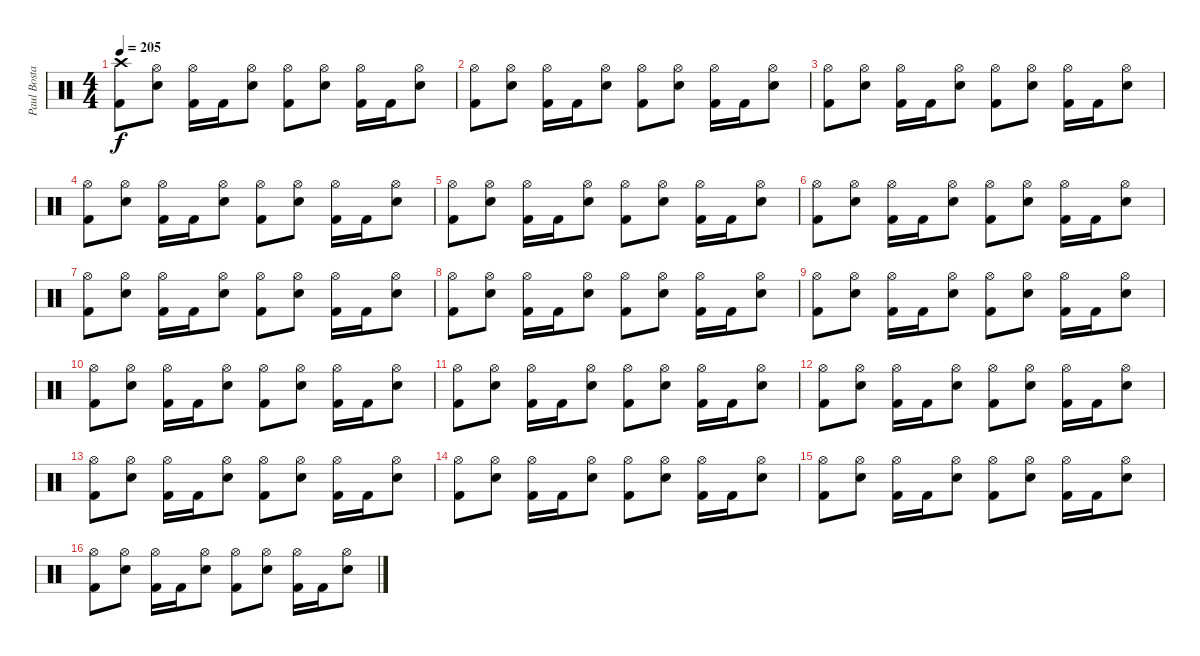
\track ("Paul Bostaph" "Paul Bosta") {instrument percussion}
\staff {score}
\articulation defaults
\ts (4 4)
\tempo 205
\clef neutral
\ks c
("Crash high (hit)" "Kick (hit) 2").8{dy f} ("Hi-Hat (open)" "Electric Snare (hit)").8 ("Hi-Hat (open)" "Kick (hit) 2").16 "Kick (hit) 2".16 ("Hi-Hat (open)" "Electric Snare (hit)").8 ("Hi-Hat (open)" "Kick (hit) 2").8 ("Hi-Hat (open)" "Electric Snare (hit)").8 ("Hi-Hat (open)" "Kick (hit) 2").16 "Kick (hit) 2".16 ("Hi-Hat (open)" "Electric Snare (hit)").8 |
("Hi-Hat (open)" "Kick (hit) 2").8 ("Hi-Hat (open)" "Electric Snare (hit)").8 ("Hi-Hat (open)" "Kick (hit) 2").16 "Kick (hit) 2".16 ("Hi-Hat (open)" "Electric Snare (hit)").8 ("Hi-Hat (open)" "Kick (hit) 2").8 ("Hi-Hat (open)" "Electric Snare (hit)").8 ("Hi-Hat (open)" "Kick (hit) 2").16 "Kick (hit) 2".16 ("Hi-Hat (open)" "Electric Snare (hit)").8 |
("Hi-Hat (open)" "Kick (hit) 2").8 ("Hi-Hat (open)" "Electric Snare (hit)").8 ("Hi-Hat (open)" "Kick (hit) 2").16 "Kick (hit) 2".16 ("Hi-Hat (open)" "Electric Snare (hit)").8 ("Hi-Hat (open)" "Kick (hit) 2").8 ("Hi-Hat (open)" "Electric Snare (hit)").8 ("Hi-Hat (open)" "Kick (hit) 2").16 "Kick (hit) 2".16 ("Hi-Hat (open)" "Electric Snare (hit)").8 |
("Hi-Hat (open)" "Kick (hit) 2").8 ("Hi-Hat (open)" "Electric Snare (hit)").8 ("Hi-Hat (open)" "Kick (hit) 2").16 "Kick (hit) 2".16 ("Hi-Hat (open)" "Electric Snare (hit)").8 ("Hi-Hat (open)" "Kick (hit) 2").8 ("Hi-Hat (open)" "Electric Snare (hit)").8 ("Hi-Hat (open)" "Kick (hit) 2").16 "Kick (hit) 2".16 ("Hi-Hat (open)" "Electric Snare (hit)").8 |
("Hi-Hat (open)" "Kick (hit) 2").8 ("Hi-Hat (open)" "Electric Snare (hit)").8 ("Hi-Hat (open)" "Kick (hit) 2").16 "Kick (hit) 2".16 ("Hi-Hat (open)" "Electric Snare (hit)").8 ("Hi-Hat (open)" "Kick (hit) 2").8 ("Hi-Hat (open)" "Electric Snare (hit)").8 ("Hi-Hat (open)" "Kick (hit) 2").16 "Kick (hit) 2".16 ("Hi-Hat (open)" "Electric Snare (hit)").8 |
("Hi-Hat (open)" "Kick (hit) 2").8 ("Hi-Hat (open)" "Electric Snare (hit)").8 ("Hi-Hat (open)" "Kick (hit) 2").16 "Kick (hit) 2".16 ("Hi-Hat (open)" "Electric Snare (hit)").8 ("Hi-Hat (open)" "Kick (hit) 2").8 ("Hi-Hat (open)" "Electric Snare (hit)").8 ("Hi-Hat (open)" "Kick (hit) 2").16 "Kick (hit) 2".16 ("Hi-Hat (open)" "Electric Snare (hit)").8 |
("Hi-Hat (open)" "Kick (hit) 2").8 ("Hi-Hat (open)" "Electric Snare (hit)").8 ("Hi-Hat (open)" "Kick (hit) 2").16 "Kick (hit) 2".16 ("Hi-Hat (open)" "Electric Snare (hit)").8 ("Hi-Hat (open)" "Kick (hit) 2").8 ("Hi-Hat (open)" "Electric Snare (hit)").8 ("Hi-Hat (open)" "Kick (hit) 2").16 "Kick (hit) 2".16 ("Hi-Hat (open)" "Electric Snare (hit)").8 |
("Hi-Hat (open)" "Kick (hit) 2").8 ("Hi-Hat (open)" "Electric Snare (hit)").8 ("Hi-Hat (open)" "Kick (hit) 2").16 "Kick (hit) 2".16 ("Hi-Hat (open)" "Electric Snare (hit)").8 ("Hi-Hat (open)" "Kick (hit) 2").8 ("Hi-Hat (open)" "Electric Snare (hit)").8 ("Hi-Hat (open)" "Kick (hit) 2").16 "Kick (hit) 2".16 ("Hi-Hat (open)" "Electric Snare (hit)").8 |
("Hi-Hat (open)" "Kick (hit) 2").8 ("Hi-Hat (open)" "Electric Snare (hit)").8 ("Hi-Hat (open)" "Kick (hit) 2").16 "Kick (hit) 2".16 ("Hi-Hat (open)" "Electric Snare (hit)").8 ("Hi-Hat (open)" "Kick (hit) 2").8 ("Hi-Hat (open)" "Electric Snare (hit)").8 ("Hi-Hat (open)" "Kick (hit) 2").16 "Kick (hit) 2".16 ("Hi-Hat (open)" "Electric Snare (hit)").8 |
("Hi-Hat (open)" "Kick (hit) 2").8 ("Hi-Hat (open)" "Electric Snare (hit)").8 ("Hi-Hat (open)" "Kick (hit) 2").16 "Kick (hit) 2".16 ("Hi-Hat (open)" "Electric Snare (hit)").8 ("Hi-Hat (open)" "Kick (hit) 2").8 ("Hi-Hat (open)" "Electric Snare (hit)").8 ("Hi-Hat (open)" "Kick (hit) 2").16 "Kick (hit) 2".16 ("Hi-Hat (open)" "Electric Snare (hit)").8 |
("Hi-Hat (open)" "Kick (hit) 2").8 ("Hi-Hat (open)" "Electric Snare (hit)").8 ("Hi-Hat (open)" "Kick (hit) 2").16 "Kick (hit) 2".16 ("Hi-Hat (open)" "Electric Snare (hit)").8 ("Hi-Hat (open)" "Kick (hit) 2").8 ("Hi-Hat (open)" "Electric Snare (hit)").8 ("Hi-Hat (open)" "Kick (hit) 2").16 "Kick (hit) 2".16 ("Hi-Hat (open)" "Electric Snare (hit)").8 |
("Hi-Hat (open)" "Kick (hit) 2").8 ("Hi-Hat (open)" "Electric Snare (hit)").8 ("Hi-Hat (open)" "Kick (hit) 2").16 "Kick (hit) 2".16 ("Hi-Hat (open)" "Electric Snare (hit)").8 ("Hi-Hat (open)" "Kick (hit) 2").8 ("Hi-Hat (open)" "Electric Snare (hit)").8 ("Hi-Hat (open)" "Kick (hit) 2").16 "Kick (hit) 2".16 ("Hi-Hat (open)" "Electric Snare (hit)").8 |
("Hi-Hat (open)" "Kick (hit) 2").8 ("Hi-Hat (open)" "Electric Snare (hit)").8 ("Hi-Hat (open)" "Kick (hit) 2").16 "Kick (hit) 2".16 ("Hi-Hat (open)" "Electric Snare (hit)").8 ("Hi-Hat (open)" "Kick (hit) 2").8 ("Hi-Hat (open)" "Electric Snare (hit)").8 ("Hi-Hat (open)" "Kick (hit) 2").16 "Kick (hit) 2".16 ("Hi-Hat (open)" "Electric Snare (hit)").8 |
("Hi-Hat (open)" "Kick (hit) 2").8 ("Hi-Hat (open)" "Electric Snare (hit)").8 ("Hi-Hat (open)" "Kick (hit) 2").16 "Kick (hit) 2".16 ("Hi-Hat (open)" "Electric Snare (hit)").8 ("Hi-Hat (open)" "Kick (hit) 2").8 ("Hi-Hat (open)" "Electric Snare (hit)").8 ("Hi-Hat (open)" "Kick (hit) 2").16 "Kick (hit) 2".16 ("Hi-Hat (open)" "Electric Snare (hit)").8 |
("Hi-Hat (open)" "Kick (hit) 2").8 ("Hi-Hat (open)" "Electric Snare (hit)").8 ("Hi-Hat (open)" "Kick (hit) 2").16 "Kick (hit) 2".16 ("Hi-Hat (open)" "Electric Snare (hit)").8 ("Hi-Hat (open)" "Kick (hit) 2").8 ("Hi-Hat (open)" "Electric Snare (hit)").8 ("Hi-Hat (open)" "Kick (hit) 2").16 "Kick (hit) 2".16 ("Hi-Hat (open)" "Electric Snare (hit)").8 |
("Hi-Hat (open)" "Kick (hit) 2").8 ("Hi-Hat (open)" "Electric Snare (hit)").8 ("Hi-Hat (open)" "Kick (hit) 2").16 "Kick (hit) 2".16 ("Hi-Hat (open)" "Electric Snare (hit)").8 ("Hi-Hat (open)" "Kick (hit) 2").8 ("Hi-Hat (open)" "Electric Snare (hit)").8 ("Hi-Hat (open)" "Kick (hit) 2").16 "Kick (hit) 2".16 ("Hi-Hat (open)" "Electric Snare (hit)").8
